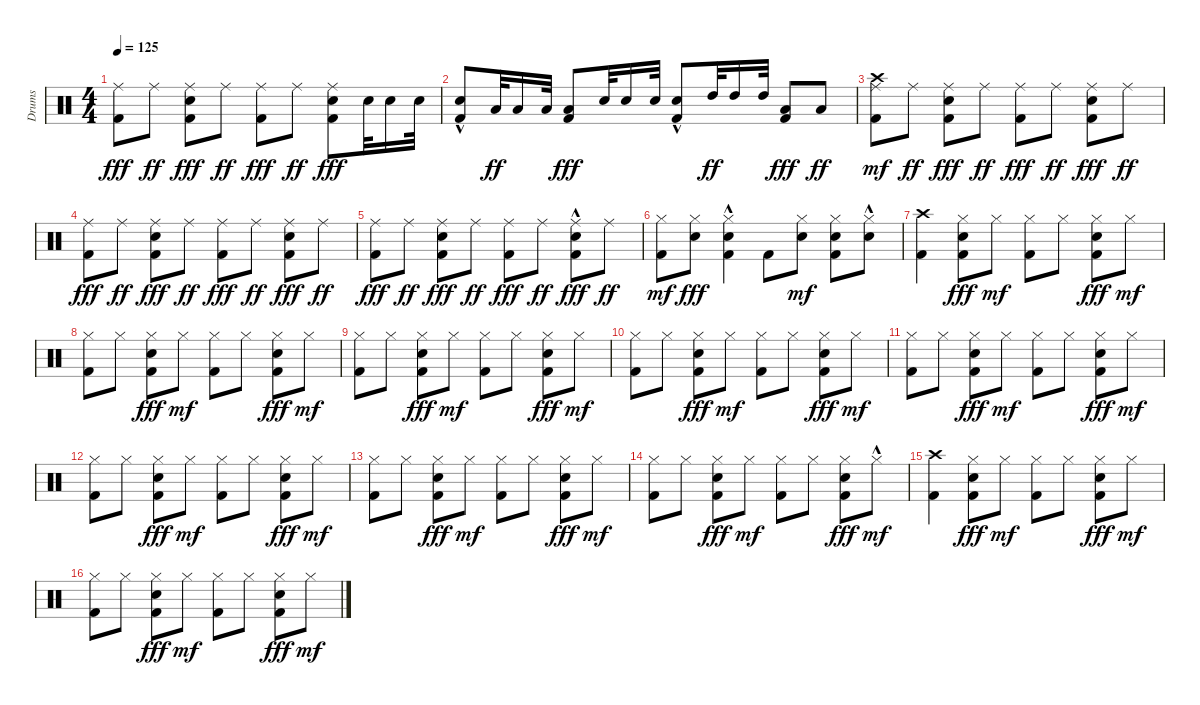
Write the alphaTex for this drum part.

\track ("Drums" "Drums") {instrument percussion}
\staff {score}
\articulation defaults
\ts (4 4)
\tempo 125
\clef neutral
\ks c
("Ride (middle)" "Kick (hit) 2").8{dy fff} "Ride (middle)".8{dy ff} ("Ride (middle)" "Snare (hit) 2" "Kick (hit) 2").8{dy fff} "Ride (middle)".8{dy ff} ("Ride (middle)" "Kick (hit) 2").8{dy fff} "Ride (middle)".8{dy ff} ("Ride (middle)" "Snare (hit) 2" "Kick (hit) 2").8{dy fff} "Snare (hit) 2".32 "Snare (hit) 2".16 "Snare (hit) 2".32 |
("Snare (hit) 2"{hac} "Kick (hit) 2").8 "Low Floor Tom (hit)".32{dy ff} "Low Floor Tom (hit)".16 "Low Floor Tom (hit)".32 ("Low Floor Tom (hit)" "Kick (hit) 2").8{dy fff} "Snare (hit) 2".32 "Snare (hit) 2".16 "Snare (hit) 2".32 ("Snare (hit) 2"{hac} "Kick (hit) 2").8 "High Tom (hit)".32{dy ff} "High Tom (hit)".16 "High Tom (hit)".32 ("Low Tom (hit)" "Kick (hit) 2").8{dy fff} "Low Floor Tom (hit)".8{dy ff} |
("Ride (middle)" "Kick (hit) 2" "Crash high (hit)").8{dy mf} "Ride (middle)".8{dy ff} ("Ride (middle)" "Snare (hit) 2" "Kick (hit) 2").8{dy fff} "Ride (middle)".8{dy ff} ("Ride (middle)" "Kick (hit) 2").8{dy fff} "Ride (middle)".8{dy ff} ("Ride (middle)" "Snare (hit) 2" "Kick (hit) 2").8{dy fff} "Ride (middle)".8{dy ff} |
("Ride (middle)" "Kick (hit) 2").8{dy fff} "Ride (middle)".8{dy ff} ("Ride (middle)" "Snare (hit) 2" "Kick (hit) 2").8{dy fff} "Ride (middle)".8{dy ff} ("Ride (middle)" "Kick (hit) 2").8{dy fff} "Ride (middle)".8{dy ff} ("Ride (middle)" "Snare (hit) 2" "Kick (hit) 2").8{dy fff} "Ride (middle)".8{dy ff} |
("Ride (middle)" "Kick (hit) 2").8{dy fff} "Ride (middle)".8{dy ff} ("Ride (middle)" "Snare (hit) 2" "Kick (hit) 2").8{dy fff} "Ride (middle)".8{dy ff} ("Ride (middle)" "Kick (hit) 2").8{dy fff} "Ride (middle)".8{dy ff} ("Ride (middle)" "Snare (hit) 2"{hac} "Kick (hit) 2").8{dy fff} "Ride (middle)".8{dy ff} |
("Kick (hit) 2" "Hi-Hat (closed)").8{dy mf} ("Snare (hit) 2" "Hi-Hat (closed)").8{dy fff} ("Snare (hit) 2"{hac} "Kick (hit) 2" "Hi-Hat (closed)"{hac}).4 "Kick (hit) 2".8 ("Snare (hit) 2" "Hi-Hat (closed)").8{dy mf} ("Snare (hit) 2" "Kick (hit) 2" "Hi-Hat (closed)").8 ("Snare (hit) 2"{hac} "Hi-Hat (closed)"{hac}).8 |
("Kick (hit) 2" "Crash high (hit)").4 ("Snare (hit) 2" "Kick (hit) 2" "Hi-Hat (closed)").8{dy fff} "Hi-Hat (closed)".8{dy mf} ("Kick (hit) 2" "Hi-Hat (closed)").8 "Hi-Hat (closed)".8 ("Snare (hit) 2" "Kick (hit) 2" "Hi-Hat (closed)").8{dy fff} "Hi-Hat (closed)".8{dy mf} |
("Kick (hit) 2" "Hi-Hat (closed)").8 "Hi-Hat (closed)".8 ("Snare (hit) 2" "Kick (hit) 2" "Hi-Hat (closed)").8{dy fff} "Hi-Hat (closed)".8{dy mf} ("Kick (hit) 2" "Hi-Hat (closed)").8 "Hi-Hat (closed)".8 ("Snare (hit) 2" "Kick (hit) 2" "Hi-Hat (closed)").8{dy fff} "Hi-Hat (closed)".8{dy mf} |
("Kick (hit) 2" "Hi-Hat (closed)").8 "Hi-Hat (closed)".8 ("Snare (hit) 2" "Kick (hit) 2" "Hi-Hat (closed)").8{dy fff} "Hi-Hat (closed)".8{dy mf} ("Kick (hit) 2" "Hi-Hat (closed)").8 "Hi-Hat (closed)".8 ("Snare (hit) 2" "Kick (hit) 2" "Hi-Hat (closed)").8{dy fff} "Hi-Hat (closed)".8{dy mf} |
("Kick (hit) 2" "Hi-Hat (closed)").8 "Hi-Hat (closed)".8 ("Snare (hit) 2" "Kick (hit) 2" "Hi-Hat (closed)").8{dy fff} "Hi-Hat (closed)".8{dy mf} ("Kick (hit) 2" "Hi-Hat (closed)").8 "Hi-Hat (closed)".8 ("Snare (hit) 2" "Kick (hit) 2" "Hi-Hat (closed)").8{dy fff} "Hi-Hat (closed)".8{dy mf} |
("Kick (hit) 2" "Hi-Hat (closed)").8 "Hi-Hat (closed)".8 ("Snare (hit) 2" "Kick (hit) 2" "Hi-Hat (closed)").8{dy fff} "Hi-Hat (closed)".8{dy mf} ("Kick (hit) 2" "Hi-Hat (closed)").8 "Hi-Hat (closed)".8 ("Snare (hit) 2" "Kick (hit) 2" "Hi-Hat (closed)").8{dy fff} "Hi-Hat (closed)".8{dy mf} |
("Kick (hit) 2" "Hi-Hat (closed)").8 "Hi-Hat (closed)".8 ("Snare (hit) 2" "Kick (hit) 2" "Hi-Hat (closed)").8{dy fff} "Hi-Hat (closed)".8{dy mf} ("Kick (hit) 2" "Hi-Hat (closed)").8 "Hi-Hat (closed)".8 ("Snare (hit) 2" "Kick (hit) 2" "Hi-Hat (closed)").8{dy fff} "Hi-Hat (closed)".8{dy mf} |
("Kick (hit) 2" "Hi-Hat (closed)").8 "Hi-Hat (closed)".8 ("Snare (hit) 2" "Kick (hit) 2" "Hi-Hat (closed)").8{dy fff} "Hi-Hat (closed)".8{dy mf} ("Kick (hit) 2" "Hi-Hat (closed)").8 "Hi-Hat (closed)".8 ("Snare (hit) 2" "Kick (hit) 2" "Hi-Hat (closed)").8{dy fff} "Hi-Hat (closed)".8{dy mf} |
("Kick (hit) 2" "Hi-Hat (closed)").8 "Hi-Hat (closed)".8 ("Snare (hit) 2" "Kick (hit) 2" "Hi-Hat (closed)").8{dy fff} "Hi-Hat (closed)".8{dy mf} ("Kick (hit) 2" "Hi-Hat (closed)").8 "Hi-Hat (closed)".8 ("Snare (hit) 2" "Kick (hit) 2" "Hi-Hat (closed)").8{dy fff} "Hi-Hat (closed)"{hac}.8{dy mf} |
("Kick (hit) 2" "Crash high (hit)").4 ("Snare (hit) 2" "Kick (hit) 2" "Hi-Hat (closed)").8{dy fff} "Hi-Hat (closed)".8{dy mf} ("Kick (hit) 2" "Hi-Hat (closed)").8 "Hi-Hat (closed)".8 ("Snare (hit) 2" "Kick (hit) 2" "Hi-Hat (closed)").8{dy fff} "Hi-Hat (closed)".8{dy mf} |
("Kick (hit) 2" "Hi-Hat (closed)").8 "Hi-Hat (closed)".8 ("Snare (hit) 2" "Kick (hit) 2" "Hi-Hat (closed)").8{dy fff} "Hi-Hat (closed)".8{dy mf} ("Kick (hit) 2" "Hi-Hat (closed)").8 "Hi-Hat (closed)".8 ("Snare (hit) 2" "Kick (hit) 2" "Hi-Hat (closed)").8{dy fff} "Hi-Hat (closed)".8{dy mf}
